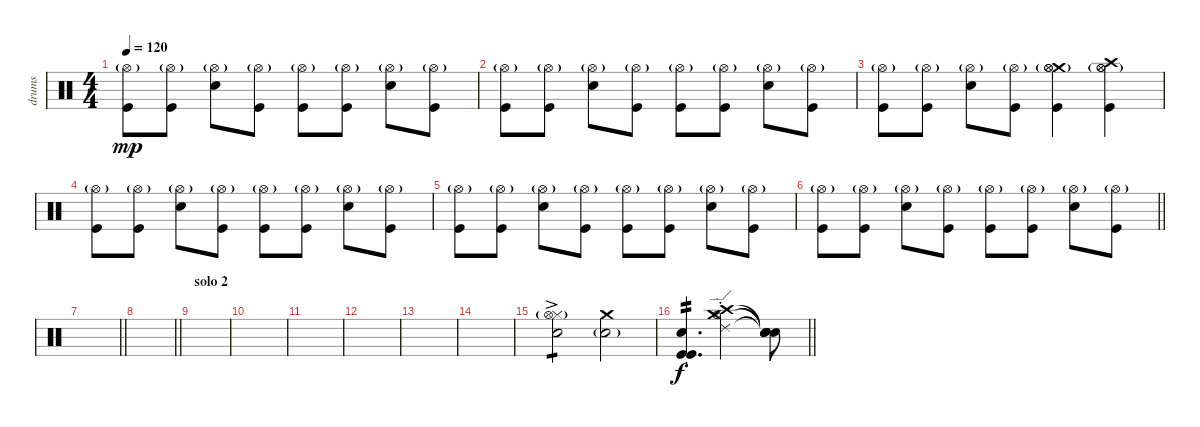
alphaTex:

\track ("drums" "drums") {instrument percussion}
\staff {score}
\articulation defaults
\ts (4 4)
\tempo 120
\clef neutral
\ks c
("Kick (hit)" "Hi-Hat (open)"{g}).8{dy mp} ("Kick (hit)" "Hi-Hat (open)"{g}).8 ("Electric Snare (hit)" "Hi-Hat (open)"{g}).8 ("Kick (hit)" "Hi-Hat (open)"{g}).8 ("Kick (hit)" "Hi-Hat (open)"{g}).8 ("Kick (hit)" "Hi-Hat (open)"{g}).8 ("Electric Snare (hit)" "Hi-Hat (open)"{g}).8 ("Kick (hit)" "Hi-Hat (open)"{g}).8 |
("Kick (hit)" "Hi-Hat (open)"{g}).8 ("Kick (hit)" "Hi-Hat (open)"{g}).8 ("Electric Snare (hit)" "Hi-Hat (open)"{g}).8 ("Kick (hit)" "Hi-Hat (open)"{g}).8 ("Kick (hit)" "Hi-Hat (open)"{g}).8 ("Kick (hit)" "Hi-Hat (open)"{g}).8 ("Electric Snare (hit)" "Hi-Hat (open)"{g}).8 ("Kick (hit)" "Hi-Hat (open)"{g}).8 |
("Kick (hit)" "Hi-Hat (open)"{g}).8 ("Kick (hit)" "Hi-Hat (open)"{g}).8 ("Electric Snare (hit)" "Hi-Hat (open)"{g}).8 ("Kick (hit)" "Hi-Hat (open)"{g}).8 ("Crash medium (hit)" "Hi-Hat (open)" "Kick (hit)" "Hi-Hat (open)"{g}).4 ("Crash high (hit)" "Hi-Hat (open)" "Kick (hit)" "Hi-Hat (open)"{g}).4 |
("Kick (hit)" "Hi-Hat (open)"{g}).8 ("Kick (hit)" "Hi-Hat (open)"{g}).8 ("Electric Snare (hit)" "Hi-Hat (open)"{g}).8 ("Kick (hit)" "Hi-Hat (open)"{g}).8 ("Kick (hit)" "Hi-Hat (open)"{g}).8 ("Kick (hit)" "Hi-Hat (open)"{g}).8 ("Electric Snare (hit)" "Hi-Hat (open)"{g}).8 ("Kick (hit)" "Hi-Hat (open)"{g}).8 |
("Kick (hit)" "Hi-Hat (open)"{g}).8 ("Kick (hit)" "Hi-Hat (open)"{g}).8 ("Electric Snare (hit)" "Hi-Hat (open)"{g}).8 ("Kick (hit)" "Hi-Hat (open)"{g}).8 ("Kick (hit)" "Hi-Hat (open)"{g}).8 ("Kick (hit)" "Hi-Hat (open)"{g}).8 ("Electric Snare (hit)" "Hi-Hat (open)"{g}).8 ("Kick (hit)" "Hi-Hat (open)"{g}).8 |
\barLineRight lightlight
("Kick (hit)" "Hi-Hat (open)"{g}).8 ("Kick (hit)" "Hi-Hat (open)"{g}).8 ("Electric Snare (hit)" "Hi-Hat (open)"{g}).8 ("Kick (hit)" "Hi-Hat (open)"{g}).8 ("Kick (hit)" "Hi-Hat (open)"{g}).8 ("Kick (hit)" "Hi-Hat (open)"{g}).8 ("Electric Snare (hit)" "Hi-Hat (open)"{g}).8 ("Kick (hit)" "Hi-Hat (open)"{g}).8 |
\barLineRight lightlight
|
\barLineRight lightlight
|
\section ("" "solo 2")
|
|
|
|
|
|
("Hi-Hat (closed)"{g} "Electric Snare (hit)"{ac} "Hi-Hat (open)"{g}).2{tp 1} ("Snare (hit) 2"{g} "Crash medium (hit)").2 |
\barLineRight lightlight
("Kick (hit)" "Kick (hit)"{st} "Snare (hit) 2"{st}).4{d tp 2 dy f} ("Ride (edge) 2"{st} "Crash high (hit)"{st} "Crash medium (hit)"{st} "Hi-Hat (open)"{st}).2 ("Snare (hit)"{t} "Snare (hit)"{t} "Snare (hit)"{t} "Snare (hit)"{t}).8
